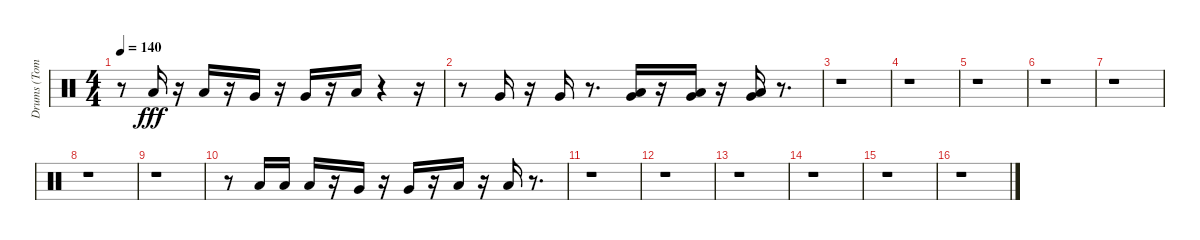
\track ("Drums (Toms)" "Drums (Tom") {instrument percussion}
\staff {score}
\articulation defaults
\ts (4 4)
\tempo 140
\clef neutral
\ks c
r.8{dy fff} "Low Tom (hit)".16 r.16 "Low Tom (hit)".16 r.16 "Very Low Tom (hit)".16 r.16 "Very Low Tom (hit)".16 r.16 "Low Floor Tom (hit)".16 r.4 r.16 |
r.8 "Very Low Tom (hit)".16 r.16 "Very Low Tom (hit)".16 r.8{d} ("Low Floor Tom (hit)" "Very Low Tom (hit)").16 r.16 ("Low Floor Tom (hit)" "Very Low Tom (hit)").16 r.16 ("Low Floor Tom (hit)" "Very Low Tom (hit)").16 r.8{d} |
r.1 |
r.1 |
r.1 |
r.1 |
r.1 |
r.1 |
r.1 |
r.8 "Low Tom (hit)".16 "Low Tom (hit)".16 "Low Tom (hit)".16 r.16 "Very Low Tom (hit)".16 r.16 "Very Low Tom (hit)".16 r.16 "Low Floor Tom (hit)".16 r.16 "Low Floor Tom (hit)".16 r.8{d} |
r.1 |
r.1 |
r.1 |
r.1 |
r.1 |
r.1
